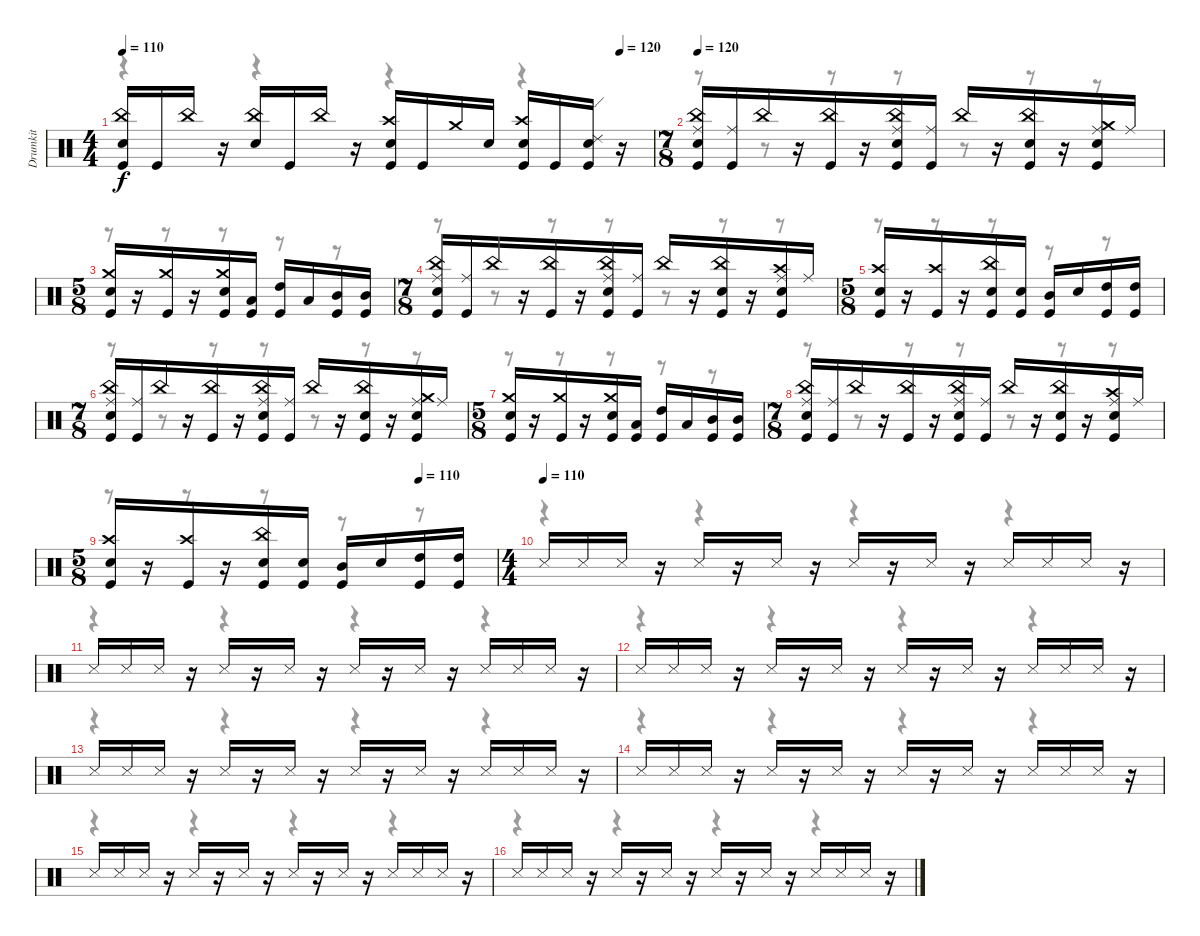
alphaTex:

\track ("Drumkit" "Drumkit") {instrument percussion}
\staff {score}
\articulation defaults
\voice
\ts (4 4)
\tempo 110
\tempo (120 0.9375)
\clef neutral
\ks c
("China (hit)" "Snare (hit) 2" "Kick (hit)").16{dy f} "Kick (hit)".16 "China (hit)".16 r.16 ("China (hit)" "Snare (hit) 2").16 "Kick (hit)".16 "China (hit)".16 r.16 ("Crash high (hit)" "Snare (hit) 2" "Kick (hit)").16 "Kick (hit)".16 "Crash medium (hit)".16 "Snare (hit) 2".16 ("Crash high (hit)" "Snare (hit) 2" "Kick (hit)").16 "Kick (hit)".16 ("Ride (edge) 2" "Snare (hit) 2" "Kick (hit)").16 r.16 |
\ts (7 8)
\tempo 120
("Ride (middle)" "China (hit)" "Snare (hit) 2" "Kick (hit)").16 ("Ride (middle)" "Kick (hit)").16 "China (hit)".16 r.16 ("China (hit)" "Kick (hit)").16 r.16 ("Ride (middle)" "China (hit)" "Snare (hit) 2" "Kick (hit)").16 ("Ride (middle)" "Kick (hit)").16 "China (hit)".16 r.16 ("China (hit)" "Snare (hit) 2" "Kick (hit)").16 r.16 ("Ride (middle)" "Crash medium (hit)" "Snare (hit) 2" "Kick (hit)").16 "Ride (middle)".16 |
\ts (5 8)
("Crash medium (hit)" "Snare (hit) 2" "Kick (hit)").16 r.16 ("Crash medium (hit)" "Kick (hit)").16 r.16 ("Crash medium (hit)" "Snare (hit) 2" "Kick (hit)").16 ("Low Floor Tom (hit)" "Kick (hit)").16 ("High Tom (hit)" "Kick (hit)").16 "Low Floor Tom (hit)".16 ("Mid Tom (hit)" "Kick (hit)").16 ("Mid Tom (hit)" "Kick (hit)").16 |
\ts (7 8)
("Ride (middle)" "China (hit)" "Snare (hit) 2" "Kick (hit)").16 ("Ride (middle)" "Kick (hit)").16 "China (hit)".16 r.16 ("China (hit)" "Kick (hit)").16 r.16 ("Ride (middle)" "China (hit)" "Snare (hit) 2" "Kick (hit)").16 ("Ride (middle)" "Kick (hit)").16 "China (hit)".16 r.16 ("China (hit)" "Snare (hit) 2" "Kick (hit)").16 r.16 ("Ride (middle)" "Crash high (hit)" "Snare (hit) 2" "Kick (hit)").16 "Ride (middle)".16 |
\ts (5 8)
("Crash high (hit)" "Snare (hit) 2" "Kick (hit)").16 r.16 ("Crash high (hit)" "Kick (hit)").16 r.16 ("China (hit)" "Snare (hit) 2" "Kick (hit)").16 ("Snare (hit) 2" "Kick (hit)").16 ("Mid Tom (hit)" "Kick (hit)").16 "Snare (hit) 2".16 ("High Tom (hit)" "Kick (hit)").16 ("High Tom (hit)" "Kick (hit)").16 |
\ts (7 8)
("Ride (middle)" "China (hit)" "Snare (hit) 2" "Kick (hit)").16 ("Ride (middle)" "Kick (hit)").16 "China (hit)".16 r.16 ("China (hit)" "Kick (hit)").16 r.16 ("Ride (middle)" "China (hit)" "Snare (hit) 2" "Kick (hit)").16 ("Ride (middle)" "Kick (hit)").16 "China (hit)".16 r.16 ("China (hit)" "Snare (hit) 2" "Kick (hit)").16 r.16 ("Ride (middle)" "Crash medium (hit)" "Snare (hit) 2" "Kick (hit)").16 "Ride (middle)".16 |
\ts (5 8)
("Crash medium (hit)" "Snare (hit) 2" "Kick (hit)").16 r.16 ("Crash medium (hit)" "Kick (hit)").16 r.16 ("Crash medium (hit)" "Snare (hit) 2" "Kick (hit)").16 ("Low Floor Tom (hit)" "Kick (hit)").16 ("High Tom (hit)" "Kick (hit)").16 "Low Floor Tom (hit)".16 ("Mid Tom (hit)" "Kick (hit)").16 ("Mid Tom (hit)" "Kick (hit)").16 |
\ts (7 8)
("Ride (middle)" "China (hit)" "Snare (hit) 2" "Kick (hit)").16 ("Ride (middle)" "Kick (hit)").16 "China (hit)".16 r.16 ("China (hit)" "Kick (hit)").16 r.16 ("Ride (middle)" "China (hit)" "Snare (hit) 2" "Kick (hit)").16 ("Ride (middle)" "Kick (hit)").16 "China (hit)".16 r.16 ("China (hit)" "Snare (hit) 2" "Kick (hit)").16 r.16 ("Ride (middle)" "Crash high (hit)" "Snare (hit) 2" "Kick (hit)").16 "Ride (middle)".16 |
\ts (5 8)
\tempo (110 0.8)
("Crash high (hit)" "Snare (hit) 2" "Kick (hit)").16 r.16 ("Crash high (hit)" "Kick (hit)").16 r.16 ("China (hit)" "Snare (hit) 2" "Kick (hit)").16 ("Snare (hit) 2" "Kick (hit)").16 ("Mid Tom (hit)" "Kick (hit)").16 "Snare (hit) 2".16 ("High Tom (hit)" "Kick (hit)").16 ("High Tom (hit)" "Kick (hit)").16 |
\ts (4 4)
\tempo (110)
"Snare (side stick) 3".16 "Snare (side stick) 3".16 "Snare (side stick) 3".16 r.16 "Snare (side stick) 3".16 r.16 "Snare (side stick) 3".16 r.16 "Snare (side stick) 3".16 r.16 "Snare (side stick) 3".16 r.16 "Snare (side stick) 3".16 "Snare (side stick) 3".16 "Snare (side stick) 3".16 r.16 |
"Snare (side stick) 3".16 "Snare (side stick) 3".16 "Snare (side stick) 3".16 r.16 "Snare (side stick) 3".16 r.16 "Snare (side stick) 3".16 r.16 "Snare (side stick) 3".16 r.16 "Snare (side stick) 3".16 r.16 "Snare (side stick) 3".16 "Snare (side stick) 3".16 "Snare (side stick) 3".16 r.16 |
"Snare (side stick) 3".16 "Snare (side stick) 3".16 "Snare (side stick) 3".16 r.16 "Snare (side stick) 3".16 r.16 "Snare (side stick) 3".16 r.16 "Snare (side stick) 3".16 r.16 "Snare (side stick) 3".16 r.16 "Snare (side stick) 3".16 "Snare (side stick) 3".16 "Snare (side stick) 3".16 r.16 |
"Snare (side stick) 3".16 "Snare (side stick) 3".16 "Snare (side stick) 3".16 r.16 "Snare (side stick) 3".16 r.16 "Snare (side stick) 3".16 r.16 "Snare (side stick) 3".16 r.16 "Snare (side stick) 3".16 r.16 "Snare (side stick) 3".16 "Snare (side stick) 3".16 "Snare (side stick) 3".16 r.16 |
"Snare (side stick) 3".16 "Snare (side stick) 3".16 "Snare (side stick) 3".16 r.16 "Snare (side stick) 3".16 r.16 "Snare (side stick) 3".16 r.16 "Snare (side stick) 3".16 r.16 "Snare (side stick) 3".16 r.16 "Snare (side stick) 3".16 "Snare (side stick) 3".16 "Snare (side stick) 3".16 r.16 |
"Snare (side stick) 3".16 "Snare (side stick) 3".16 "Snare (side stick) 3".16 r.16 "Snare (side stick) 3".16 r.16 "Snare (side stick) 3".16 r.16 "Snare (side stick) 3".16 r.16 "Snare (side stick) 3".16 r.16 "Snare (side stick) 3".16 "Snare (side stick) 3".16 "Snare (side stick) 3".16 r.16 |
"Snare (side stick) 3".16 "Snare (side stick) 3".16 "Snare (side stick) 3".16 r.16 "Snare (side stick) 3".16 r.16 "Snare (side stick) 3".16 r.16 "Snare (side stick) 3".16 r.16 "Snare (side stick) 3".16 r.16 "Snare (side stick) 3".16 "Snare (side stick) 3".16 "Snare (side stick) 3".16 r.16
\voice
\clef neutral
\ottava regular
\simile none
\ks c
r.4{dy f} r.4 r.4 r.4 |
r.8 r.8 r.8 r.8 r.8 r.8 r.8 |
r.8 r.8 r.8 r.8 r.8 |
r.8 r.8 r.8 r.8 r.8 r.8 r.8 |
r.8 r.8 r.8 r.8 r.8 |
r.8 r.8 r.8 r.8 r.8 r.8 r.8 |
r.8 r.8 r.8 r.8 r.8 |
r.8 r.8 r.8 r.8 r.8 r.8 r.8 |
r.8 r.8 r.8 r.8 r.8 |
r.4 r.4 r.4 r.4 |
r.4 r.4 r.4 r.4 |
r.4 r.4 r.4 r.4 |
r.4 r.4 r.4 r.4 |
r.4 r.4 r.4 r.4 |
r.4 r.4 r.4 r.4 |
r.4 r.4 r.4 r.4
